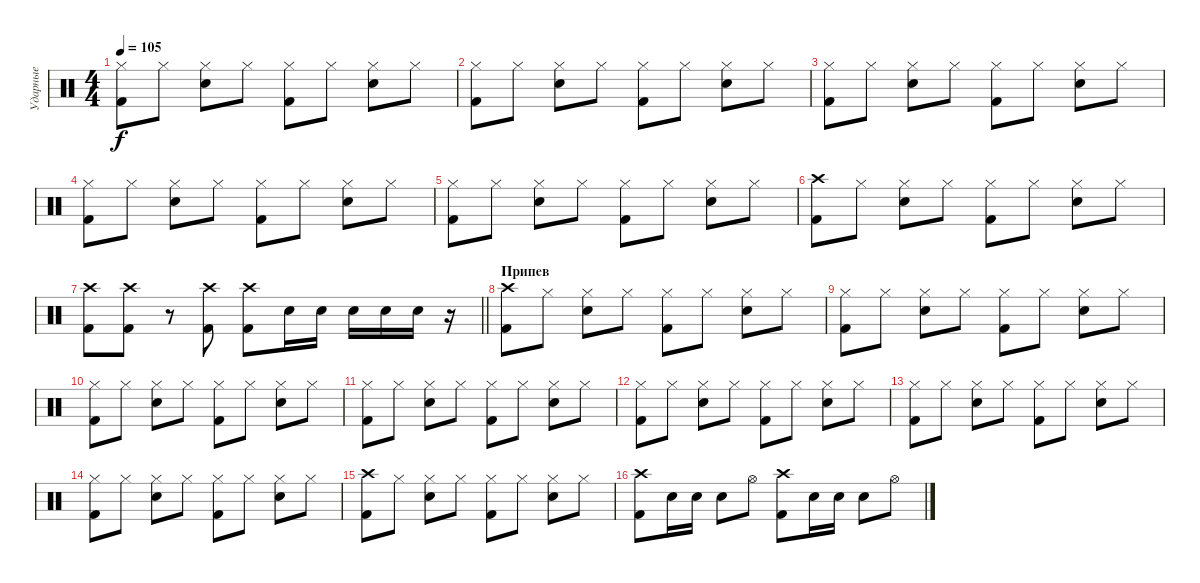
\track ("Ударные" "Ударные") {instrument percussion}
\staff {score}
\articulation defaults
\ts (4 4)
\tempo 105
\clef neutral
\ks c
("Hi-Hat (closed)" "Kick (hit) 2").8{dy f} "Hi-Hat (closed)".8 ("Hi-Hat (closed)" "Snare (hit) 2").8 "Hi-Hat (closed)".8 ("Hi-Hat (closed)" "Kick (hit) 2").8 "Hi-Hat (closed)".8 ("Hi-Hat (closed)" "Snare (hit) 2").8 "Hi-Hat (closed)".8 |
("Hi-Hat (closed)" "Kick (hit) 2").8 "Hi-Hat (closed)".8 ("Hi-Hat (closed)" "Snare (hit) 2").8 "Hi-Hat (closed)".8 ("Hi-Hat (closed)" "Kick (hit) 2").8 "Hi-Hat (closed)".8 ("Hi-Hat (closed)" "Snare (hit) 2").8 "Hi-Hat (closed)".8 |
("Hi-Hat (closed)" "Kick (hit) 2").8 "Hi-Hat (closed)".8 ("Hi-Hat (closed)" "Snare (hit) 2").8 "Hi-Hat (closed)".8 ("Hi-Hat (closed)" "Kick (hit) 2").8 "Hi-Hat (closed)".8 ("Hi-Hat (closed)" "Snare (hit) 2").8 "Hi-Hat (closed)".8 |
("Hi-Hat (closed)" "Kick (hit) 2").8 "Hi-Hat (closed)".8 ("Hi-Hat (closed)" "Snare (hit) 2").8 "Hi-Hat (closed)".8 ("Hi-Hat (closed)" "Kick (hit) 2").8 "Hi-Hat (closed)".8 ("Hi-Hat (closed)" "Snare (hit) 2").8 "Hi-Hat (closed)".8 |
("Hi-Hat (closed)" "Kick (hit) 2").8 "Hi-Hat (closed)".8 ("Hi-Hat (closed)" "Snare (hit) 2").8 "Hi-Hat (closed)".8 ("Hi-Hat (closed)" "Kick (hit) 2").8 "Hi-Hat (closed)".8 ("Hi-Hat (closed)" "Snare (hit) 2").8 "Hi-Hat (closed)".8 |
("Crash high (hit)" "Kick (hit) 2").8 "Hi-Hat (closed)".8 ("Hi-Hat (closed)" "Snare (hit) 2").8 "Hi-Hat (closed)".8 ("Hi-Hat (closed)" "Kick (hit) 2").8 "Hi-Hat (closed)".8 ("Hi-Hat (closed)" "Snare (hit) 2").8 "Hi-Hat (closed)".8 |
\barLineRight lightlight
("Kick (hit) 2" "Crash high (hit)").8 ("Kick (hit) 2" "Crash high (hit)").8 r.8 ("Kick (hit) 2" "Crash high (hit)").8 ("Kick (hit) 2" "Crash high (hit)").8 "Snare (hit) 2".16 "Snare (hit) 2".16 "Snare (hit) 2".16 "Snare (hit) 2".16 "Snare (hit) 2".16 r.16 |
\section ("" "Припев")
("Crash high (hit)" "Kick (hit) 2").8 "Hi-Hat (closed)".8 ("Hi-Hat (closed)" "Snare (hit) 2").8 "Hi-Hat (closed)".8 ("Hi-Hat (closed)" "Kick (hit) 2").8 "Hi-Hat (closed)".8 ("Hi-Hat (closed)" "Snare (hit) 2").8 "Hi-Hat (closed)".8 |
("Hi-Hat (closed)" "Kick (hit) 2").8 "Hi-Hat (closed)".8 ("Hi-Hat (closed)" "Snare (hit) 2").8 "Hi-Hat (closed)".8 ("Hi-Hat (closed)" "Kick (hit) 2").8 "Hi-Hat (closed)".8 ("Hi-Hat (closed)" "Snare (hit) 2").8 "Hi-Hat (closed)".8 |
("Hi-Hat (closed)" "Kick (hit) 2").8 "Hi-Hat (closed)".8 ("Hi-Hat (closed)" "Snare (hit) 2").8 "Hi-Hat (closed)".8 ("Hi-Hat (closed)" "Kick (hit) 2").8 "Hi-Hat (closed)".8 ("Hi-Hat (closed)" "Snare (hit) 2").8 "Hi-Hat (closed)".8 |
("Hi-Hat (closed)" "Kick (hit) 2").8 "Hi-Hat (closed)".8 ("Hi-Hat (closed)" "Snare (hit) 2").8 "Hi-Hat (closed)".8 ("Hi-Hat (closed)" "Kick (hit) 2").8 "Hi-Hat (closed)".8 ("Hi-Hat (closed)" "Snare (hit) 2").8 "Hi-Hat (closed)".8 |
("Hi-Hat (closed)" "Kick (hit) 2").8 "Hi-Hat (closed)".8 ("Hi-Hat (closed)" "Snare (hit) 2").8 "Hi-Hat (closed)".8 ("Hi-Hat (closed)" "Kick (hit) 2").8 "Hi-Hat (closed)".8 ("Hi-Hat (closed)" "Snare (hit) 2").8 "Hi-Hat (closed)".8 |
("Hi-Hat (closed)" "Kick (hit) 2").8 "Hi-Hat (closed)".8 ("Hi-Hat (closed)" "Snare (hit) 2").8 "Hi-Hat (closed)".8 ("Hi-Hat (closed)" "Kick (hit) 2").8 "Hi-Hat (closed)".8 ("Hi-Hat (closed)" "Snare (hit) 2").8 "Hi-Hat (closed)".8 |
("Hi-Hat (closed)" "Kick (hit) 2").8 "Hi-Hat (closed)".8 ("Hi-Hat (closed)" "Snare (hit) 2").8 "Hi-Hat (closed)".8 ("Hi-Hat (closed)" "Kick (hit) 2").8 "Hi-Hat (closed)".8 ("Hi-Hat (closed)" "Snare (hit) 2").8 "Hi-Hat (closed)".8 |
("Crash high (hit)" "Kick (hit) 2").8 "Hi-Hat (closed)".8 ("Hi-Hat (closed)" "Snare (hit) 2").8 "Hi-Hat (closed)".8 ("Hi-Hat (closed)" "Kick (hit) 2").8 "Hi-Hat (closed)".8 ("Hi-Hat (closed)" "Snare (hit) 2").8 "Hi-Hat (closed)".8 |
("Crash high (hit)" "Kick (hit) 2").8 "Snare (hit) 2".16 "Snare (hit) 2".16 "Snare (hit) 2".8 "Hi-Hat (open)".8 ("Kick (hit) 2" "Crash high (hit)").8 "Snare (hit) 2".16 "Snare (hit) 2".16 "Snare (hit) 2".8 "Hi-Hat (open)".8
